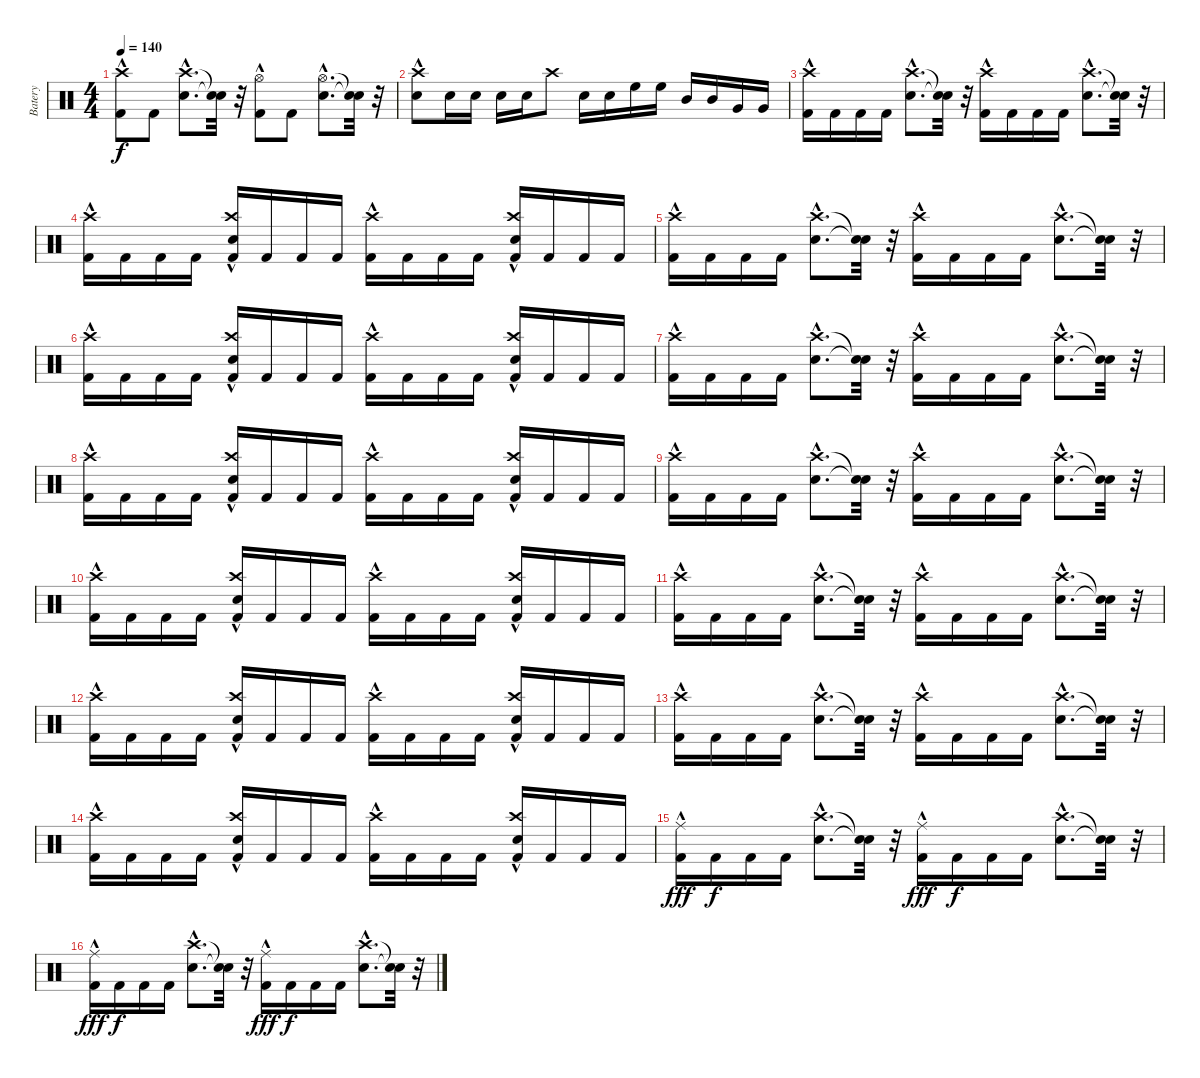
\track ("Batery" "Batery") {instrument percussion}
\staff {score}
\articulation defaults
\ts (4 4)
\tempo 140
\clef neutral
\ks c
("Kick (hit) 2" "Crash high (hit)"{hac}).8{dy f} "Kick (hit) 2".8 ("Snare (hit) 2"{hac} "Crash high (hit)"{hac}).8{d} ("Snare (hit)"{t} "Snare (hit)"{t}).32 r.32 ("Kick (hit) 2" "Hi-Hat (open)"{hac}).8 "Kick (hit) 2".8 ("Hi-Hat (open)"{hac} "Snare (hit) 2"{hac}).8{d} ("Snare (hit)"{t} "Snare (hit)"{t}).32 r.32 |
("Snare (hit) 2" "Crash high (hit)"{hac}).8 "Snare (hit) 2".16 "Snare (hit) 2".16 "Snare (hit) 2".16 "Snare (hit) 2".16 "Crash high (hit)".8 "Snare (hit) 2".16 "Snare (hit) 2".16 "High Floor Tom (hit)".16 "High Floor Tom (hit)".16 "Mid Tom (hit)".16 "Mid Tom (hit)".16 "Very Low Tom (hit)".16 "Very Low Tom (hit)".16 |
("Kick (hit) 2" "Crash high (hit)"{hac}).16 "Kick (hit) 2".16 "Kick (hit) 2".16 "Kick (hit) 2".16 ("Snare (hit) 2"{hac} "Crash high (hit)"{hac}).8{d} ("Snare (hit)"{t} "Snare (hit)"{t}).32 r.32 ("Kick (hit) 2" "Crash high (hit)"{hac}).16 "Kick (hit) 2".16 "Kick (hit) 2".16 "Kick (hit) 2".16 ("Snare (hit) 2"{hac} "Crash high (hit)"{hac}).8{d} ("Snare (hit)"{t} "Snare (hit)"{t}).32 r.32 |
("Kick (hit) 2" "Crash high (hit)"{hac}).16 "Kick (hit) 2".16 "Kick (hit) 2".16 "Kick (hit) 2".16 ("Kick (hit) 2" "Crash high (hit)"{hac} "Snare (hit) 2"{hac}).16 "Kick (hit) 2".16 "Kick (hit) 2".16 "Kick (hit) 2".16 ("Kick (hit) 2" "Crash high (hit)"{hac}).16 "Kick (hit) 2".16 "Kick (hit) 2".16 "Kick (hit) 2".16 ("Kick (hit) 2" "Crash high (hit)"{hac} "Snare (hit) 2"{hac}).16 "Kick (hit) 2".16 "Kick (hit) 2".16 "Kick (hit) 2".16 |
("Kick (hit) 2" "Crash high (hit)"{hac}).16 "Kick (hit) 2".16 "Kick (hit) 2".16 "Kick (hit) 2".16 ("Snare (hit) 2"{hac} "Crash high (hit)"{hac}).8{d} ("Snare (hit)"{t} "Snare (hit)"{t}).32 r.32 ("Kick (hit) 2" "Crash high (hit)"{hac}).16 "Kick (hit) 2".16 "Kick (hit) 2".16 "Kick (hit) 2".16 ("Snare (hit) 2"{hac} "Crash high (hit)"{hac}).8{d} ("Snare (hit)"{t} "Snare (hit)"{t}).32 r.32 |
("Kick (hit) 2" "Crash high (hit)"{hac}).16 "Kick (hit) 2".16 "Kick (hit) 2".16 "Kick (hit) 2".16 ("Kick (hit) 2" "Crash high (hit)"{hac} "Snare (hit) 2"{hac}).16 "Kick (hit) 2".16 "Kick (hit) 2".16 "Kick (hit) 2".16 ("Kick (hit) 2" "Crash high (hit)"{hac}).16 "Kick (hit) 2".16 "Kick (hit) 2".16 "Kick (hit) 2".16 ("Kick (hit) 2" "Crash high (hit)"{hac} "Snare (hit) 2"{hac}).16 "Kick (hit) 2".16 "Kick (hit) 2".16 "Kick (hit) 2".16 |
("Kick (hit) 2" "Crash high (hit)"{hac}).16 "Kick (hit) 2".16 "Kick (hit) 2".16 "Kick (hit) 2".16 ("Snare (hit) 2"{hac} "Crash high (hit)"{hac}).8{d} ("Snare (hit)"{t} "Snare (hit)"{t}).32 r.32 ("Kick (hit) 2" "Crash high (hit)"{hac}).16 "Kick (hit) 2".16 "Kick (hit) 2".16 "Kick (hit) 2".16 ("Snare (hit) 2"{hac} "Crash high (hit)"{hac}).8{d} ("Snare (hit)"{t} "Snare (hit)"{t}).32 r.32 |
("Kick (hit) 2" "Crash high (hit)"{hac}).16 "Kick (hit) 2".16 "Kick (hit) 2".16 "Kick (hit) 2".16 ("Kick (hit) 2" "Crash high (hit)"{hac} "Snare (hit) 2"{hac}).16 "Kick (hit) 2".16 "Kick (hit) 2".16 "Kick (hit) 2".16 ("Kick (hit) 2" "Crash high (hit)"{hac}).16 "Kick (hit) 2".16 "Kick (hit) 2".16 "Kick (hit) 2".16 ("Kick (hit) 2" "Crash high (hit)"{hac} "Snare (hit) 2"{hac}).16 "Kick (hit) 2".16 "Kick (hit) 2".16 "Kick (hit) 2".16 |
("Kick (hit) 2" "Crash high (hit)"{hac}).16 "Kick (hit) 2".16 "Kick (hit) 2".16 "Kick (hit) 2".16 ("Snare (hit) 2"{hac} "Crash high (hit)"{hac}).8{d} ("Snare (hit)"{t} "Snare (hit)"{t}).32 r.32 ("Kick (hit) 2" "Crash high (hit)"{hac}).16 "Kick (hit) 2".16 "Kick (hit) 2".16 "Kick (hit) 2".16 ("Snare (hit) 2"{hac} "Crash high (hit)"{hac}).8{d} ("Snare (hit)"{t} "Snare (hit)"{t}).32 r.32 |
("Kick (hit) 2" "Crash high (hit)"{hac}).16 "Kick (hit) 2".16 "Kick (hit) 2".16 "Kick (hit) 2".16 ("Kick (hit) 2" "Crash high (hit)"{hac} "Snare (hit) 2"{hac}).16 "Kick (hit) 2".16 "Kick (hit) 2".16 "Kick (hit) 2".16 ("Kick (hit) 2" "Crash high (hit)"{hac}).16 "Kick (hit) 2".16 "Kick (hit) 2".16 "Kick (hit) 2".16 ("Kick (hit) 2" "Crash high (hit)"{hac} "Snare (hit) 2"{hac}).16 "Kick (hit) 2".16 "Kick (hit) 2".16 "Kick (hit) 2".16 |
("Kick (hit) 2" "Crash high (hit)"{hac}).16 "Kick (hit) 2".16 "Kick (hit) 2".16 "Kick (hit) 2".16 ("Snare (hit) 2"{hac} "Crash high (hit)"{hac}).8{d} ("Snare (hit)"{t} "Snare (hit)"{t}).32 r.32 ("Kick (hit) 2" "Crash high (hit)"{hac}).16 "Kick (hit) 2".16 "Kick (hit) 2".16 "Kick (hit) 2".16 ("Snare (hit) 2"{hac} "Crash high (hit)"{hac}).8{d} ("Snare (hit)"{t} "Snare (hit)"{t}).32 r.32 |
("Kick (hit) 2" "Crash high (hit)"{hac}).16 "Kick (hit) 2".16 "Kick (hit) 2".16 "Kick (hit) 2".16 ("Kick (hit) 2" "Crash high (hit)"{hac} "Snare (hit) 2"{hac}).16 "Kick (hit) 2".16 "Kick (hit) 2".16 "Kick (hit) 2".16 ("Kick (hit) 2" "Crash high (hit)"{hac}).16 "Kick (hit) 2".16 "Kick (hit) 2".16 "Kick (hit) 2".16 ("Kick (hit) 2" "Crash high (hit)"{hac} "Snare (hit) 2"{hac}).16 "Kick (hit) 2".16 "Kick (hit) 2".16 "Kick (hit) 2".16 |
("Kick (hit) 2" "Crash high (hit)"{hac}).16 "Kick (hit) 2".16 "Kick (hit) 2".16 "Kick (hit) 2".16 ("Snare (hit) 2"{hac} "Crash high (hit)"{hac}).8{d} ("Snare (hit)"{t} "Snare (hit)"{t}).32 r.32 ("Kick (hit) 2" "Crash high (hit)"{hac}).16 "Kick (hit) 2".16 "Kick (hit) 2".16 "Kick (hit) 2".16 ("Snare (hit) 2"{hac} "Crash high (hit)"{hac}).8{d} ("Snare (hit)"{t} "Snare (hit)"{t}).32 r.32 |
("Kick (hit) 2" "Crash high (hit)"{hac}).16 "Kick (hit) 2".16 "Kick (hit) 2".16 "Kick (hit) 2".16 ("Kick (hit) 2" "Crash high (hit)"{hac} "Snare (hit) 2"{hac}).16 "Kick (hit) 2".16 "Kick (hit) 2".16 "Kick (hit) 2".16 ("Kick (hit) 2" "Crash high (hit)"{hac}).16 "Kick (hit) 2".16 "Kick (hit) 2".16 "Kick (hit) 2".16 ("Kick (hit) 2" "Crash high (hit)"{hac} "Snare (hit) 2"{hac}).16 "Kick (hit) 2".16 "Kick (hit) 2".16 "Kick (hit) 2".16 |
("Kick (hit) 2" "Ride (middle)"{hac}).16{dy fff} "Kick (hit) 2".16{dy f} "Kick (hit) 2".16 "Kick (hit) 2".16 ("Snare (hit) 2"{hac} "Crash high (hit)"{hac}).8{d} ("Snare (hit)"{t} "Snare (hit)"{t}).32 r.32 ("Kick (hit) 2" "Ride (middle)"{hac}).16{dy fff} "Kick (hit) 2".16{dy f} "Kick (hit) 2".16 "Kick (hit) 2".16 ("Snare (hit) 2"{hac} "Crash high (hit)"{hac}).8{d} ("Snare (hit)"{t} "Snare (hit)"{t}).32 r.32 |
("Kick (hit) 2" "Ride (middle)"{hac}).16{dy fff} "Kick (hit) 2".16{dy f} "Kick (hit) 2".16 "Kick (hit) 2".16 ("Snare (hit) 2"{hac} "Crash high (hit)"{hac}).8{d} ("Snare (hit)"{t} "Snare (hit)"{t}).32 r.32 ("Kick (hit) 2" "Ride (middle)"{hac}).16{dy fff} "Kick (hit) 2".16{dy f} "Kick (hit) 2".16 "Kick (hit) 2".16 ("Snare (hit) 2"{hac} "Crash high (hit)"{hac}).8{d} ("Snare (hit)"{t} "Snare (hit)"{t}).32 r.32
